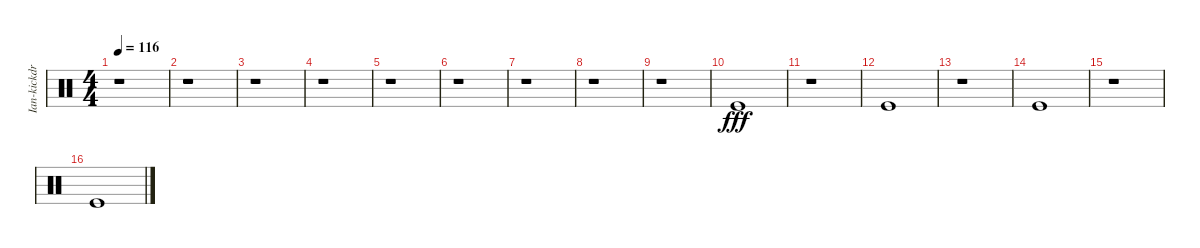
\track ("Ian-kickdrum" "Ian-kickdr") {instrument percussion}
\staff {score}
\articulation defaults
\ts (4 4)
\tempo 116
\clef neutral
\ks c
r.1{dy fff} |
r.1 |
r.1 |
r.1 |
r.1 |
r.1 |
r.1 |
r.1 |
r.1 |
"Kick (hit)".1 |
r.1 |
"Kick (hit)".1 |
r.1 |
"Kick (hit)".1 |
r.1 |
"Kick (hit)".1
